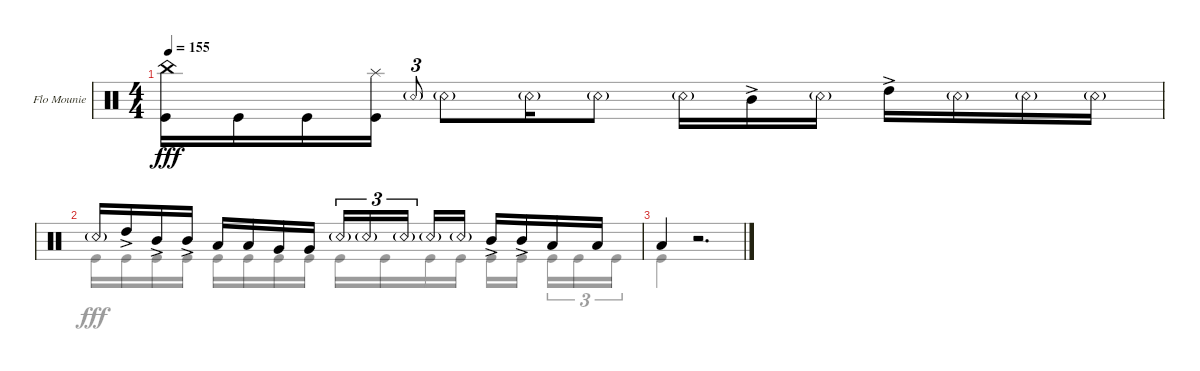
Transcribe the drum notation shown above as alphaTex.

\bracketExtendMode groupsimilarinstruments
\firstSystemTrackNameOrientation horizontal
\otherSystemsTrackNameOrientation horizontal
\track ("Flo Mounier" "Flo Mounie") {instrument percussion}
\staff {score}
\articulation defaults
\voice
\ts (4 4)
\tempo 155
\clef neutral
\scale
0.266582
\ks c
("Kick (hit)" "China (hit)").16{dy fff} "Kick (hit)".16 "Kick (hit)".16 ("Kick (hit)" "Splash (hit)").16 "Snare (rim shot)"{g}.8{tu (3 2) gr onbeat} "Snare (rim shot)"{g}.8 "Snare (rim shot)"{g}.16 "Snare (rim shot)"{g}.8 "Snare (rim shot)"{g}.16 "Mid Tom (hit)"{ac}.16 "Snare (rim shot)"{g}.16 "High Tom (hit)"{ac}.16 "Snare (rim shot)"{g}.16 "Snare (rim shot)"{g}.16 "Snare (rim shot)"{g}.16 |
\scale
0.296738 "Snare (rim shot)"{g}.16 "High Tom (hit)"{ac}.16 "Mid Tom (hit)"{ac}.16 "Mid Tom (hit)"{ac}.16 "Low Tom (hit)".16 "Low Tom (hit)".16 "Very Low Tom (hit)".16 "Very Low Tom (hit)".16 "Snare (rim shot)"{g}.16{tu (3 2)} "Snare (rim shot)"{g}.16{tu (3 2)} "Snare (rim shot)"{g}.16{tu (3 2)} "Snare (rim shot)"{g}.16 "Snare (rim shot)"{g}.16 "Mid Tom (hit)"{ac}.16 "Mid Tom (hit)"{ac}.16 "Low Tom (hit)".16 "Low Tom (hit)".16 |
"Low Tom (hit)".4 r.2{d}
\voice
\clef neutral
\ottava regular
\simile none
\scale
0.266582
\ks c
|
\scale
0.296738 "Kick (hit)".16 "Kick (hit)".16 "Kick (hit)".16 "Kick (hit)".16 "Kick (hit)".16 "Kick (hit)".16 "Kick (hit)".16 "Kick (hit)".16 "Kick (hit)".16 "Kick (hit)".16 "Kick (hit)".16 "Kick (hit)".16 "Kick (hit)".16 "Kick (hit)".16 "Kick (hit)".16{tu (3 2)} "Kick (hit)".16{tu (3 2)} "Kick (hit)".16{tu (3 2)} |
"Kick (hit)".4
